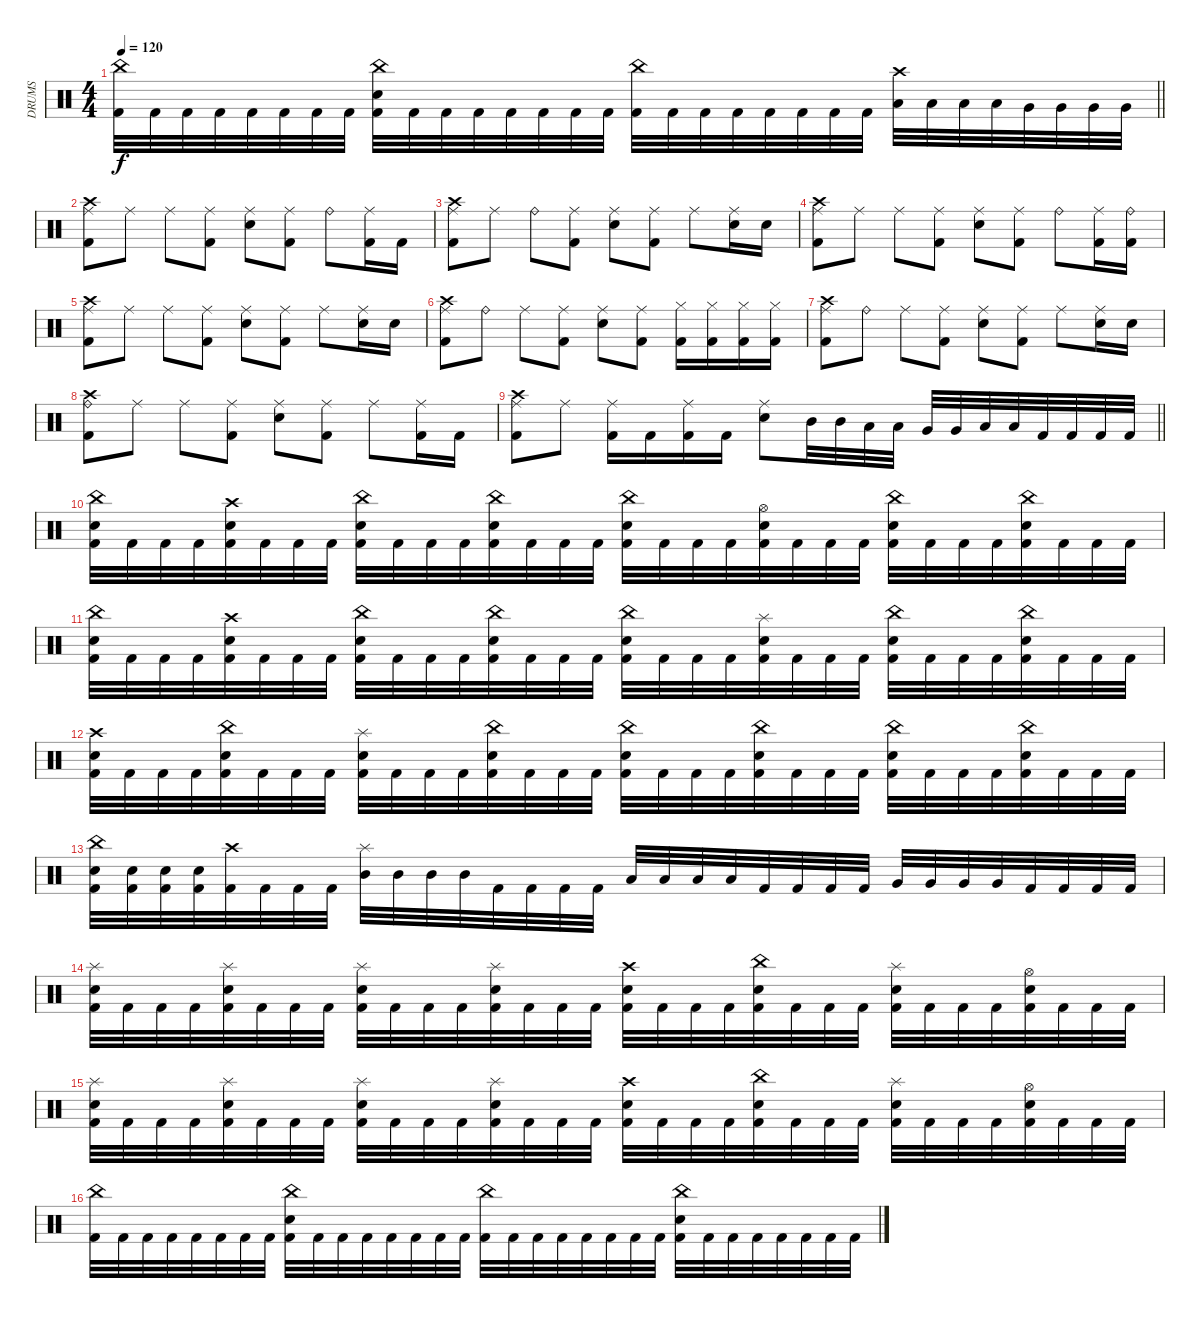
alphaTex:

\track ("DRUMS" "DRUMS") {instrument percussion}
\staff {score}
\articulation defaults
\ts (4 4)
\tempo 120
\clef neutral
\barLineRight lightlight
\ks c
("China (hit)" "Kick (hit) 2").32{dy f} "Kick (hit) 2".32 "Kick (hit) 2".32 "Kick (hit) 2".32 "Kick (hit) 2".32 "Kick (hit) 2".32 "Kick (hit) 2".32 "Kick (hit) 2".32 ("China (hit)" "Electric Snare (hit)" "Kick (hit) 2").32 "Kick (hit) 2".32 "Kick (hit) 2".32 "Kick (hit) 2".32 "Kick (hit) 2".32 "Kick (hit) 2".32 "Kick (hit) 2".32 "Kick (hit) 2".32 ("China (hit)" "Kick (hit) 2").32 "Kick (hit) 2".32 "Kick (hit) 2".32 "Kick (hit) 2".32 "Kick (hit) 2".32 "Kick (hit) 2".32 "Kick (hit) 2".32 "Kick (hit) 2".32 ("Crash high (hit)" "Low Tom (hit)").32 "Low Tom (hit)".32 "Low Tom (hit)".32 "Low Tom (hit)".32 "Very Low Tom (hit)".32 "Very Low Tom (hit)".32 "Very Low Tom (hit)".32 "Very Low Tom (hit)".32 |
("Ride (middle)" "Crash high (hit)" "Kick (hit) 2").8 "Ride (middle)".8 "Ride (middle)".8 ("Ride (middle)" "Kick (hit) 2").8 ("Ride (middle)" "Electric Snare (hit)").8 ("Ride (middle)" "Kick (hit) 2").8 "Ride (bell)".8 ("Ride (middle)" "Kick (hit) 2").16 "Kick (hit) 2".16 |
("Ride (middle)" "Crash high (hit)" "Kick (hit) 2").8 "Ride (middle)".8 "Ride (bell)".8 ("Ride (middle)" "Kick (hit) 2").8 ("Ride (middle)" "Electric Snare (hit)").8 ("Ride (middle)" "Kick (hit) 2").8 "Ride (middle)".8 ("Ride (middle)" "Electric Snare (hit)").16 "Electric Snare (hit)".16 |
("Ride (middle)" "Crash high (hit)" "Kick (hit) 2").8 "Ride (middle)".8 "Ride (middle)".8 ("Ride (middle)" "Kick (hit) 2").8 ("Ride (middle)" "Electric Snare (hit)").8 ("Ride (middle)" "Kick (hit) 2").8 "Ride (bell)".8 ("Ride (middle)" "Kick (hit) 2").16 ("Ride (bell)" "Kick (hit) 2").16 |
("Ride (middle)" "Crash high (hit)" "Kick (hit) 2").8 "Ride (middle)".8 "Ride (middle)".8 ("Ride (middle)" "Kick (hit) 2").8 ("Ride (middle)" "Electric Snare (hit)").8 ("Ride (middle)" "Kick (hit) 2").8 "Ride (middle)".8 ("Ride (middle)" "Electric Snare (hit)").16 "Electric Snare (hit)".16 |
("Ride (middle)" "Crash high (hit)" "Kick (hit) 2").8 "Ride (bell)".8 "Ride (middle)".8 ("Ride (middle)" "Kick (hit) 2").8 ("Ride (middle)" "Electric Snare (hit)").8 ("Ride (middle)" "Kick (hit) 2").8 ("Hi-Hat (closed)" "Kick (hit) 2").16 ("Hi-Hat (closed)" "Kick (hit) 2").16 ("Hi-Hat (closed)" "Kick (hit) 2").16 ("Hi-Hat (closed)" "Kick (hit) 2").16 |
("Ride (middle)" "Crash high (hit)" "Kick (hit) 2").8 "Ride (bell)".8 "Ride (middle)".8 ("Ride (middle)" "Kick (hit) 2").8 ("Ride (middle)" "Electric Snare (hit)").8 ("Ride (middle)" "Kick (hit) 2").8 "Ride (middle)".8 ("Ride (middle)" "Electric Snare (hit)").16 "Electric Snare (hit)".16 |
("Ride (bell)" "Crash high (hit)" "Kick (hit) 2").8 "Ride (middle)".8 "Ride (middle)".8 ("Ride (middle)" "Kick (hit) 2").8 ("Ride (middle)" "Electric Snare (hit)").8 ("Ride (middle)" "Kick (hit) 2").8 "Ride (middle)".8 ("Ride (middle)" "Kick (hit) 2").16 "Kick (hit) 2".16 |
\barLineRight lightlight
("Ride (middle)" "Crash high (hit)" "Kick (hit) 2").8 "Ride (middle)".8 ("Ride (middle)" "Kick (hit) 2").16 "Kick (hit) 2".16 ("Ride (middle)" "Kick (hit) 2").16 "Kick (hit) 2".16 ("Ride (middle)" "Electric Snare (hit)").8 "Mid Tom (hit)".32 "Mid Tom (hit)".32 "Low Tom (hit)".32 "Low Tom (hit)".32 "Very Low Tom (hit)".32 "Very Low Tom (hit)".32 "Low Floor Tom (hit)".32 "Low Floor Tom (hit)".32 "Kick (hit) 2".32 "Kick (hit) 2".32 "Kick (hit) 2".32 "Kick (hit) 2".32 |
("China (hit)" "Electric Snare (hit)" "Kick (hit) 2").32 "Kick (hit) 2".32 "Kick (hit) 2".32 "Kick (hit) 2".32 ("Crash high (hit)" "Electric Snare (hit)" "Kick (hit) 2").32 "Kick (hit) 2".32 "Kick (hit) 2".32 "Kick (hit) 2".32 ("China (hit)" "Electric Snare (hit)" "Kick (hit) 2").32 "Kick (hit) 2".32 "Kick (hit) 2".32 "Kick (hit) 2".32 ("China (hit)" "Electric Snare (hit)" "Kick (hit) 2").32 "Kick (hit) 2".32 "Kick (hit) 2".32 "Kick (hit) 2".32 ("China (hit)" "Electric Snare (hit)" "Kick (hit) 2").32 "Kick (hit) 2".32 "Kick (hit) 2".32 "Kick (hit) 2".32 ("Hi-Hat (open)" "Electric Snare (hit)" "Kick (hit) 2").32 "Kick (hit) 2".32 "Kick (hit) 2".32 "Kick (hit) 2".32 ("China (hit)" "Electric Snare (hit)" "Kick (hit) 2").32 "Kick (hit) 2".32 "Kick (hit) 2".32 "Kick (hit) 2".32 ("China (hit)" "Electric Snare (hit)" "Kick (hit) 2").32 "Kick (hit) 2".32 "Kick (hit) 2".32 "Kick (hit) 2".32 |
("China (hit)" "Electric Snare (hit)" "Kick (hit) 2").32 "Kick (hit) 2".32 "Kick (hit) 2".32 "Kick (hit) 2".32 ("Crash high (hit)" "Electric Snare (hit)" "Kick (hit) 2").32 "Kick (hit) 2".32 "Kick (hit) 2".32 "Kick (hit) 2".32 ("China (hit)" "Electric Snare (hit)" "Kick (hit) 2").32 "Kick (hit) 2".32 "Kick (hit) 2".32 "Kick (hit) 2".32 ("China (hit)" "Electric Snare (hit)" "Kick (hit) 2").32 "Kick (hit) 2".32 "Kick (hit) 2".32 "Kick (hit) 2".32 ("China (hit)" "Electric Snare (hit)" "Kick (hit) 2").32 "Kick (hit) 2".32 "Kick (hit) 2".32 "Kick (hit) 2".32 ("Splash (hit)" "Electric Snare (hit)" "Kick (hit) 2").32 "Kick (hit) 2".32 "Kick (hit) 2".32 "Kick (hit) 2".32 ("China (hit)" "Electric Snare (hit)" "Kick (hit) 2").32 "Kick (hit) 2".32 "Kick (hit) 2".32 "Kick (hit) 2".32 ("China (hit)" "Electric Snare (hit)" "Kick (hit) 2").32 "Kick (hit) 2".32 "Kick (hit) 2".32 "Kick (hit) 2".32 |
("Crash high (hit)" "Electric Snare (hit)" "Kick (hit) 2").32 "Kick (hit) 2".32 "Kick (hit) 2".32 "Kick (hit) 2".32 ("China (hit)" "Electric Snare (hit)" "Kick (hit) 2").32 "Kick (hit) 2".32 "Kick (hit) 2".32 "Kick (hit) 2".32 ("Splash (hit)" "Electric Snare (hit)" "Kick (hit) 2").32 "Kick (hit) 2".32 "Kick (hit) 2".32 "Kick (hit) 2".32 ("China (hit)" "Electric Snare (hit)" "Kick (hit) 2").32 "Kick (hit) 2".32 "Kick (hit) 2".32 "Kick (hit) 2".32 ("China (hit)" "Electric Snare (hit)" "Kick (hit) 2").32 "Kick (hit) 2".32 "Kick (hit) 2".32 "Kick (hit) 2".32 ("China (hit)" "Electric Snare (hit)" "Kick (hit) 2").32 "Kick (hit) 2".32 "Kick (hit) 2".32 "Kick (hit) 2".32 ("China (hit)" "Electric Snare (hit)" "Kick (hit) 2").32 "Kick (hit) 2".32 "Kick (hit) 2".32 "Kick (hit) 2".32 ("China (hit)" "Electric Snare (hit)" "Kick (hit) 2").32 "Kick (hit) 2".32 "Kick (hit) 2".32 "Kick (hit) 2".32 |
("China (hit)" "Electric Snare (hit)" "Kick (hit) 2").32 ("Electric Snare (hit)" "Kick (hit) 2").32 ("Electric Snare (hit)" "Kick (hit) 2").32 ("Electric Snare (hit)" "Kick (hit) 2").32 ("Crash high (hit)" "Kick (hit) 2").32 "Kick (hit) 2".32 "Kick (hit) 2".32 "Kick (hit) 2".32 ("Splash (hit)" "Mid Tom (hit)").32 "Mid Tom (hit)".32 "Mid Tom (hit)".32 "Mid Tom (hit)".32 "Kick (hit) 2".32 "Kick (hit) 2".32 "Kick (hit) 2".32 "Kick (hit) 2".32 "Low Tom (hit)".32 "Low Tom (hit)".32 "Low Tom (hit)".32 "Low Tom (hit)".32 "Kick (hit) 2".32 "Kick (hit) 2".32 "Kick (hit) 2".32 "Kick (hit) 2".32 "Very Low Tom (hit)".32 "Very Low Tom (hit)".32 "Very Low Tom (hit)".32 "Very Low Tom (hit)".32 "Kick (hit) 2".32 "Kick (hit) 2".32 "Kick (hit) 2".32 "Kick (hit) 2".32 |
("Splash (hit)" "Electric Snare (hit)" "Kick (hit) 2").32 "Kick (hit) 2".32 "Kick (hit) 2".32 "Kick (hit) 2".32 ("Splash (hit)" "Electric Snare (hit)" "Kick (hit) 2").32 "Kick (hit) 2".32 "Kick (hit) 2".32 "Kick (hit) 2".32 ("Splash (hit)" "Electric Snare (hit)" "Kick (hit) 2").32 "Kick (hit) 2".32 "Kick (hit) 2".32 "Kick (hit) 2".32 ("Splash (hit)" "Electric Snare (hit)" "Kick (hit) 2").32 "Kick (hit) 2".32 "Kick (hit) 2".32 "Kick (hit) 2".32 ("Crash high (hit)" "Electric Snare (hit)" "Kick (hit) 2").32 "Kick (hit) 2".32 "Kick (hit) 2".32 "Kick (hit) 2".32 ("China (hit)" "Electric Snare (hit)" "Kick (hit) 2").32 "Kick (hit) 2".32 "Kick (hit) 2".32 "Kick (hit) 2".32 ("Splash (hit)" "Electric Snare (hit)" "Kick (hit) 2").32 "Kick (hit) 2".32 "Kick (hit) 2".32 "Kick (hit) 2".32 ("Hi-Hat (open)" "Electric Snare (hit)" "Kick (hit) 2").32 "Kick (hit) 2".32 "Kick (hit) 2".32 "Kick (hit) 2".32 |
("Splash (hit)" "Electric Snare (hit)" "Kick (hit) 2").32 "Kick (hit) 2".32 "Kick (hit) 2".32 "Kick (hit) 2".32 ("Splash (hit)" "Electric Snare (hit)" "Kick (hit) 2").32 "Kick (hit) 2".32 "Kick (hit) 2".32 "Kick (hit) 2".32 ("Splash (hit)" "Electric Snare (hit)" "Kick (hit) 2").32 "Kick (hit) 2".32 "Kick (hit) 2".32 "Kick (hit) 2".32 ("Splash (hit)" "Electric Snare (hit)" "Kick (hit) 2").32 "Kick (hit) 2".32 "Kick (hit) 2".32 "Kick (hit) 2".32 ("Crash high (hit)" "Electric Snare (hit)" "Kick (hit) 2").32 "Kick (hit) 2".32 "Kick (hit) 2".32 "Kick (hit) 2".32 ("China (hit)" "Electric Snare (hit)" "Kick (hit) 2").32 "Kick (hit) 2".32 "Kick (hit) 2".32 "Kick (hit) 2".32 ("Splash (hit)" "Electric Snare (hit)" "Kick (hit) 2").32 "Kick (hit) 2".32 "Kick (hit) 2".32 "Kick (hit) 2".32 ("Hi-Hat (open)" "Electric Snare (hit)" "Kick (hit) 2").32 "Kick (hit) 2".32 "Kick (hit) 2".32 "Kick (hit) 2".32 |
("China (hit)" "Kick (hit) 2").32 "Kick (hit) 2".32 "Kick (hit) 2".32 "Kick (hit) 2".32 "Kick (hit) 2".32 "Kick (hit) 2".32 "Kick (hit) 2".32 "Kick (hit) 2".32 ("China (hit)" "Electric Snare (hit)" "Kick (hit) 2").32 "Kick (hit) 2".32 "Kick (hit) 2".32 "Kick (hit) 2".32 "Kick (hit) 2".32 "Kick (hit) 2".32 "Kick (hit) 2".32 "Kick (hit) 2".32 ("China (hit)" "Kick (hit) 2").32 "Kick (hit) 2".32 "Kick (hit) 2".32 "Kick (hit) 2".32 "Kick (hit) 2".32 "Kick (hit) 2".32 "Kick (hit) 2".32 "Kick (hit) 2".32 ("China (hit)" "Electric Snare (hit)" "Kick (hit) 2").32 "Kick (hit) 2".32 "Kick (hit) 2".32 "Kick (hit) 2".32 "Kick (hit) 2".32 "Kick (hit) 2".32 "Kick (hit) 2".32 "Kick (hit) 2".32
